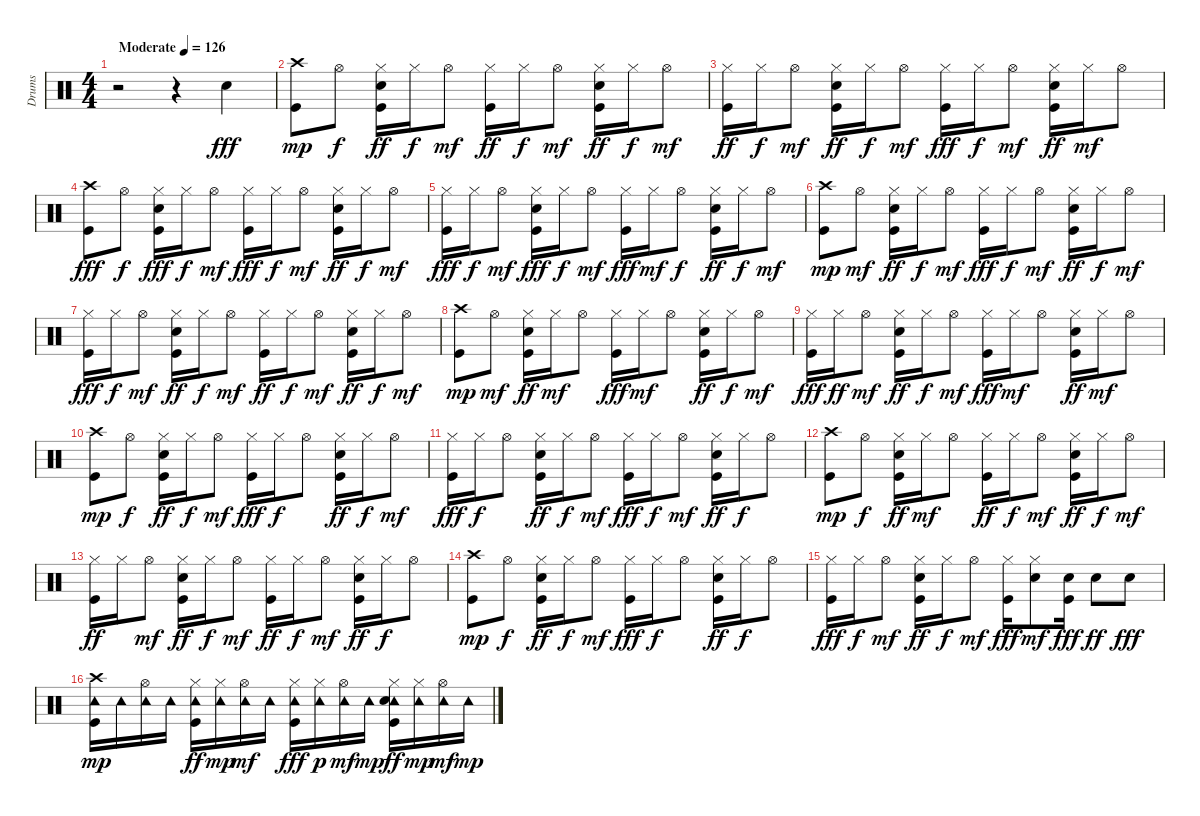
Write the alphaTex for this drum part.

\track ("Drums" "Drums") {instrument percussion}
\staff {score}
\articulation defaults
\ts (4 4)
\tempo (126 "Moderate")
\clef neutral
\ks c
r.2{dy fff} r.4 "Snare (hit) 2".4 |
("Kick (hit)" "Crash high (hit)").8{dy mp} "Hi-Hat (open)".8{dy f} ("Kick (hit)" "Snare (hit) 2" "Hi-Hat (closed)").16{dy ff} "Hi-Hat (closed)".16{dy f} "Hi-Hat (open)".8{dy mf} ("Kick (hit)" "Hi-Hat (closed)").16{dy ff} "Hi-Hat (closed)".16{dy f} "Hi-Hat (open)".8{dy mf} ("Hi-Hat (closed)" "Kick (hit)" "Snare (hit) 2").16{dy ff} "Hi-Hat (closed)".16{dy f} "Hi-Hat (open)".8{dy mf} |
("Kick (hit)" "Hi-Hat (closed)").16{dy ff} "Hi-Hat (closed)".16{dy f} "Hi-Hat (open)".8{dy mf} ("Kick (hit)" "Snare (hit) 2" "Hi-Hat (closed)").16{dy ff} "Hi-Hat (closed)".16{dy f} "Hi-Hat (open)".8{dy mf} ("Kick (hit)" "Hi-Hat (closed)").16{dy fff} "Hi-Hat (closed)".16{dy f} "Hi-Hat (open)".8{dy mf} ("Hi-Hat (closed)" "Kick (hit)" "Snare (hit) 2").16{dy ff} "Hi-Hat (closed)".16{dy mf} "Hi-Hat (open)".8 |
("Crash high (hit)" "Kick (hit)").8{dy fff} "Hi-Hat (open)".8{dy f} ("Hi-Hat (closed)" "Kick (hit)" "Snare (hit) 2").16{dy fff} "Hi-Hat (closed)".16{dy f} "Hi-Hat (open)".8{dy mf} ("Hi-Hat (closed)" "Kick (hit)").16{dy fff} "Hi-Hat (closed)".16{dy f} "Hi-Hat (open)".8{dy mf} ("Hi-Hat (closed)" "Kick (hit)" "Snare (hit) 2").16{dy ff} "Hi-Hat (closed)".16{dy f} "Hi-Hat (open)".8{dy mf} |
("Hi-Hat (closed)" "Kick (hit)").16{dy fff} "Hi-Hat (closed)".16{dy f} "Hi-Hat (open)".8{dy mf} ("Hi-Hat (closed)" "Kick (hit)" "Snare (hit) 2").16{dy fff} "Hi-Hat (closed)".16{dy f} "Hi-Hat (open)".8{dy mf} ("Hi-Hat (closed)" "Kick (hit)").16{dy fff} "Hi-Hat (closed)".16{dy mf} "Hi-Hat (open)".8{dy f} ("Kick (hit)" "Snare (hit) 2" "Hi-Hat (closed)").16{dy ff} "Hi-Hat (closed)".16{dy f} "Hi-Hat (open)".8{dy mf} |
("Kick (hit)" "Crash high (hit)").8{dy mp} "Hi-Hat (open)".8{dy mf} ("Hi-Hat (closed)" "Kick (hit)" "Snare (hit) 2").16{dy ff} "Hi-Hat (closed)".16{dy f} "Hi-Hat (open)".8{dy mf} ("Hi-Hat (closed)" "Kick (hit)").16{dy fff} "Hi-Hat (closed)".16{dy f} "Hi-Hat (open)".8{dy mf} ("Kick (hit)" "Snare (hit) 2" "Hi-Hat (closed)").16{dy ff} "Hi-Hat (closed)".16{dy f} "Hi-Hat (open)".8{dy mf} |
("Hi-Hat (closed)" "Kick (hit)").16{dy fff} "Hi-Hat (closed)".16{dy f} "Hi-Hat (open)".8{dy mf} ("Kick (hit)" "Snare (hit) 2" "Hi-Hat (closed)").16{dy ff} "Hi-Hat (closed)".16{dy f} "Hi-Hat (open)".8{dy mf} ("Kick (hit)" "Hi-Hat (closed)").16{dy ff} "Hi-Hat (closed)".16{dy f} "Hi-Hat (open)".8{dy mf} ("Kick (hit)" "Snare (hit) 2" "Hi-Hat (closed)").16{dy ff} "Hi-Hat (closed)".16{dy f} "Hi-Hat (open)".8{dy mf} |
("Kick (hit)" "Crash high (hit)").8{dy mp} "Hi-Hat (open)".8{dy mf} ("Hi-Hat (closed)" "Kick (hit)" "Snare (hit) 2").16{dy ff} "Hi-Hat (closed)".16{dy mf} "Hi-Hat (open)".8 ("Hi-Hat (closed)" "Kick (hit)").16{dy fff} "Hi-Hat (closed)".16{dy mf} "Hi-Hat (open)".8 ("Hi-Hat (closed)" "Kick (hit)" "Snare (hit) 2").16{dy ff} "Hi-Hat (closed)".16{dy f} "Hi-Hat (open)".8{dy mf} |
("Hi-Hat (closed)" "Kick (hit)").16{dy fff} "Hi-Hat (closed)".16{dy ff} "Hi-Hat (open)".8{dy mf} ("Kick (hit)" "Hi-Hat (closed)" "Snare (hit) 2").16{dy ff} "Hi-Hat (closed)".16{dy f} "Hi-Hat (open)".8{dy mf} ("Kick (hit)" "Hi-Hat (closed)").16{dy fff} "Hi-Hat (closed)".16{dy mf} "Hi-Hat (open)".8 ("Kick (hit)" "Snare (hit) 2" "Hi-Hat (closed)").16{dy ff} "Hi-Hat (closed)".16{dy mf} "Hi-Hat (open)".8 |
("Kick (hit)" "Crash high (hit)").8{dy mp} "Hi-Hat (open)".8{dy f} ("Hi-Hat (closed)" "Kick (hit)" "Snare (hit) 2").16{dy ff} "Hi-Hat (closed)".16{dy f} "Hi-Hat (open)".8{dy mf} ("Hi-Hat (closed)" "Kick (hit)").16{dy fff} "Hi-Hat (closed)".16{dy f} "Hi-Hat (open)".8 ("Hi-Hat (closed)" "Kick (hit)" "Snare (hit) 2").16{dy ff} "Hi-Hat (closed)".16{dy f} "Hi-Hat (open)".8{dy mf} |
("Hi-Hat (closed)" "Kick (hit)").16{dy fff} "Hi-Hat (closed)".16{dy f} "Hi-Hat (open)".8 ("Kick (hit)" "Snare (hit) 2" "Hi-Hat (closed)").16{dy ff} "Hi-Hat (closed)".16{dy f} "Hi-Hat (open)".8{dy mf} ("Hi-Hat (closed)" "Kick (hit)").16{dy fff} "Hi-Hat (closed)".16{dy f} "Hi-Hat (open)".8{dy mf} ("Hi-Hat (closed)" "Kick (hit)" "Snare (hit) 2").16{dy ff} "Hi-Hat (closed)".16{dy f} "Hi-Hat (open)".8 |
("Kick (hit)" "Crash high (hit)").8{dy mp} "Hi-Hat (open)".8{dy f} ("Kick (hit)" "Hi-Hat (closed)" "Snare (hit) 2").16{dy ff} "Hi-Hat (closed)".16{dy mf} "Hi-Hat (open)".8 ("Kick (hit)" "Hi-Hat (closed)").16{dy ff} "Hi-Hat (closed)".16{dy f} "Hi-Hat (open)".8{dy mf} ("Kick (hit)" "Snare (hit) 2" "Hi-Hat (closed)").16{dy ff} "Hi-Hat (closed)".16{dy f} "Hi-Hat (open)".8{dy mf} |
("Kick (hit)" "Hi-Hat (closed)").16{dy ff} "Hi-Hat (closed)".16 "Hi-Hat (open)".8{dy mf} ("Kick (hit)" "Snare (hit) 2" "Hi-Hat (closed)").16{dy ff} "Hi-Hat (closed)".16{dy f} "Hi-Hat (open)".8{dy mf} ("Kick (hit)" "Hi-Hat (closed)").16{dy ff} "Hi-Hat (closed)".16{dy f} "Hi-Hat (open)".8{dy mf} ("Kick (hit)" "Snare (hit) 2" "Hi-Hat (closed)").16{dy ff} "Hi-Hat (closed)".16{dy f} "Hi-Hat (open)".8 |
("Kick (hit)" "Crash high (hit)").8{dy mp} "Hi-Hat (open)".8{dy f} ("Hi-Hat (closed)" "Kick (hit)" "Snare (hit) 2").16{dy ff} "Hi-Hat (closed)".16{dy f} "Hi-Hat (open)".8{dy mf} ("Hi-Hat (closed)" "Kick (hit)").16{dy fff} "Hi-Hat (closed)".16{dy f} "Hi-Hat (open)".8 ("Hi-Hat (closed)" "Kick (hit)" "Snare (hit) 2").16{dy ff} "Hi-Hat (closed)".16{dy f} "Hi-Hat (open)".8 |
("Hi-Hat (closed)" "Kick (hit)").16{dy fff} "Hi-Hat (closed)".16{dy f} "Hi-Hat (open)".8{dy mf} ("Kick (hit)" "Snare (hit) 2" "Hi-Hat (closed)").16{dy ff} "Hi-Hat (closed)".16{dy f} "Hi-Hat (open)".8{dy mf} ("Kick (hit)" "Hi-Hat (closed)").16{dy fff} ("Snare (hit) 2" "Hi-Hat (closed)").8{dy mf} ("Snare (hit) 2" "Kick (hit)").16{dy fff} "Snare (hit) 2".8{dy ff} "Snare (hit) 2".8{dy fff} |
("Tambourine (hit)" "Kick (hit)" "Crash high (hit)").16{dy mp} "Tambourine (hit)".16 ("Hi-Hat (open)" "Tambourine (hit)").16 "Tambourine (hit)".16 ("Hi-Hat (closed)" "Tambourine (hit)" "Kick (hit)").16{dy ff} ("Hi-Hat (closed)" "Tambourine (hit)").16{dy mp} ("Hi-Hat (open)" "Tambourine (hit)").16{dy mf} "Tambourine (hit)".16 ("Kick (hit)" "Tambourine (hit)" "Hi-Hat (closed)").16{dy fff} ("Hi-Hat (closed)" "Tambourine (hit)").16{dy p} ("Tambourine (hit)" "Hi-Hat (open)").16{dy mf} "Tambourine (hit)".16{dy mp} ("Tambourine (hit)" "Hi-Hat (closed)" "Kick (hit)" "Snare (hit) 2").16{dy ff} ("Tambourine (hit)" "Hi-Hat (closed)").16{dy mp} ("Tambourine (hit)" "Hi-Hat (open)").16{dy mf} "Tambourine (hit)".16{dy mp}
